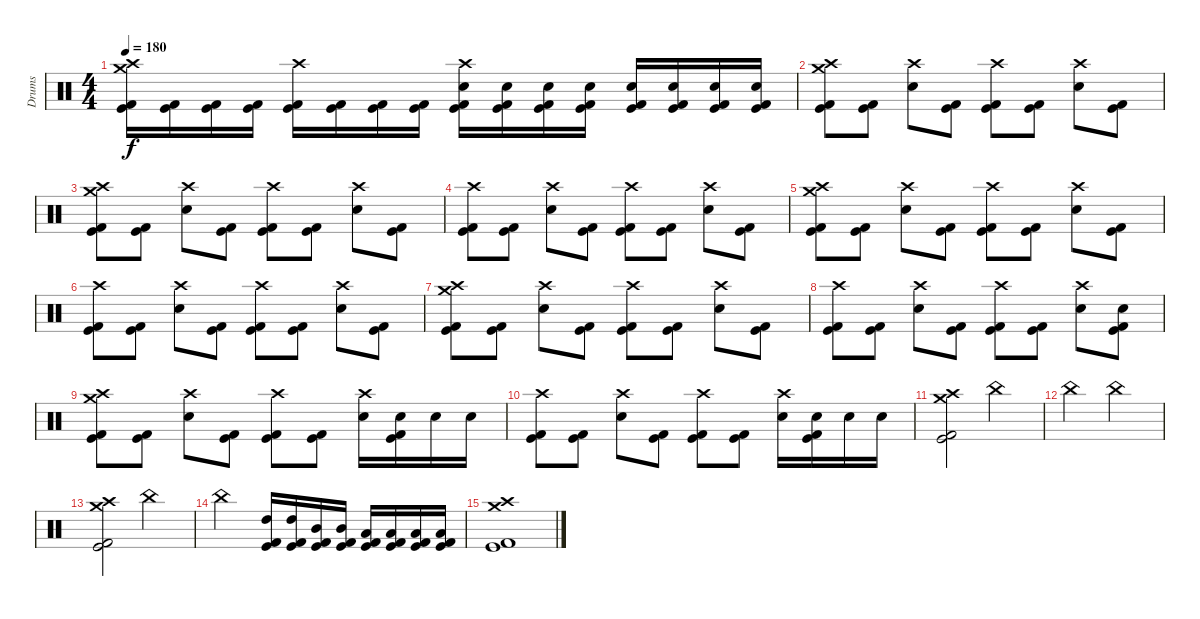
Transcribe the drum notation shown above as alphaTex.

\track ("Drums" "Drums") {instrument percussion}
\staff {score}
\articulation defaults
\ts (4 4)
\tempo 180
\clef neutral
\ks c
("Crash medium (hit)" "Crash high (hit)" "Kick (hit)" "Kick (hit) 2").16{dy f} ("Kick (hit)" "Kick (hit) 2").16 ("Kick (hit)" "Kick (hit) 2").16 ("Kick (hit)" "Kick (hit) 2").16 ("Crash high (hit)" "Kick (hit)" "Kick (hit) 2").16 ("Kick (hit)" "Kick (hit) 2").16 ("Kick (hit)" "Kick (hit) 2").16 ("Kick (hit)" "Kick (hit) 2").16 ("Crash high (hit)" "Snare (hit) 2" "Kick (hit)" "Kick (hit) 2").16 ("Snare (hit) 2" "Kick (hit)" "Kick (hit) 2").16 ("Snare (hit) 2" "Kick (hit)" "Kick (hit) 2").16 ("Snare (hit) 2" "Kick (hit)" "Kick (hit) 2").16 ("Snare (hit) 2" "Kick (hit)" "Kick (hit) 2").16 ("Snare (hit) 2" "Kick (hit)" "Kick (hit) 2").16 ("Snare (hit) 2" "Kick (hit)" "Kick (hit) 2").16 ("Snare (hit) 2" "Kick (hit)" "Kick (hit) 2").16 |
("Crash medium (hit)" "Crash high (hit)" "Kick (hit)" "Kick (hit) 2").8 ("Kick (hit)" "Kick (hit) 2").8 ("Crash high (hit)" "Snare (hit) 2").8 ("Kick (hit)" "Kick (hit) 2").8 ("Crash high (hit)" "Kick (hit)" "Kick (hit) 2").8 ("Kick (hit)" "Kick (hit) 2").8 ("Crash high (hit)" "Snare (hit) 2").8 ("Kick (hit)" "Kick (hit) 2").8 |
("Crash medium (hit)" "Crash high (hit)" "Kick (hit)" "Kick (hit) 2").8 ("Kick (hit)" "Kick (hit) 2").8 ("Crash high (hit)" "Snare (hit) 2").8 ("Kick (hit)" "Kick (hit) 2").8 ("Crash high (hit)" "Kick (hit)" "Kick (hit) 2").8 ("Kick (hit)" "Kick (hit) 2").8 ("Crash high (hit)" "Snare (hit) 2").8 ("Kick (hit)" "Kick (hit) 2").8 |
("Crash high (hit)" "Kick (hit)" "Kick (hit) 2").8 ("Kick (hit)" "Kick (hit) 2").8 ("Crash high (hit)" "Snare (hit) 2").8 ("Kick (hit)" "Kick (hit) 2").8 ("Crash high (hit)" "Kick (hit)" "Kick (hit) 2").8 ("Kick (hit)" "Kick (hit) 2").8 ("Crash high (hit)" "Snare (hit) 2").8 ("Kick (hit)" "Kick (hit) 2").8 |
("Crash medium (hit)" "Crash high (hit)" "Kick (hit)" "Kick (hit) 2").8 ("Kick (hit)" "Kick (hit) 2").8 ("Crash high (hit)" "Snare (hit) 2").8 ("Kick (hit)" "Kick (hit) 2").8 ("Crash high (hit)" "Kick (hit)" "Kick (hit) 2").8 ("Kick (hit)" "Kick (hit) 2").8 ("Crash high (hit)" "Snare (hit) 2").8 ("Kick (hit)" "Kick (hit) 2").8 |
("Crash high (hit)" "Kick (hit)" "Kick (hit) 2").8 ("Kick (hit)" "Kick (hit) 2").8 ("Crash high (hit)" "Snare (hit) 2").8 ("Kick (hit)" "Kick (hit) 2").8 ("Crash high (hit)" "Kick (hit)" "Kick (hit) 2").8 ("Kick (hit)" "Kick (hit) 2").8 ("Crash high (hit)" "Snare (hit) 2").8 ("Kick (hit)" "Kick (hit) 2").8 |
("Crash medium (hit)" "Crash high (hit)" "Kick (hit)" "Kick (hit) 2").8 ("Kick (hit)" "Kick (hit) 2").8 ("Crash high (hit)" "Snare (hit) 2").8 ("Kick (hit)" "Kick (hit) 2").8 ("Crash high (hit)" "Kick (hit)" "Kick (hit) 2").8 ("Kick (hit)" "Kick (hit) 2").8 ("Crash high (hit)" "Snare (hit) 2").8 ("Kick (hit)" "Kick (hit) 2").8 |
("Crash high (hit)" "Kick (hit)" "Kick (hit) 2").8 ("Kick (hit)" "Kick (hit) 2").8 ("Crash high (hit)" "Snare (hit) 2").8 ("Kick (hit)" "Kick (hit) 2").8 ("Crash high (hit)" "Kick (hit)" "Kick (hit) 2").8 ("Kick (hit)" "Kick (hit) 2").8 ("Crash high (hit)" "Snare (hit) 2").8 ("Snare (hit) 2" "Kick (hit)" "Kick (hit) 2").8 |
("Crash medium (hit)" "Crash high (hit)" "Kick (hit)" "Kick (hit) 2").8 ("Kick (hit)" "Kick (hit) 2").8 ("Crash high (hit)" "Snare (hit) 2").8 ("Kick (hit)" "Kick (hit) 2").8 ("Crash high (hit)" "Kick (hit)" "Kick (hit) 2").8 ("Kick (hit)" "Kick (hit) 2").8 ("Crash high (hit)" "Snare (hit) 2").16 ("Snare (hit) 2" "Kick (hit)" "Kick (hit) 2").16 "Snare (hit) 2".16 "Snare (hit) 2".16 |
("Crash high (hit)" "Kick (hit)" "Kick (hit) 2").8 ("Kick (hit)" "Kick (hit) 2").8 ("Crash high (hit)" "Snare (hit) 2").8 ("Kick (hit)" "Kick (hit) 2").8 ("Crash high (hit)" "Kick (hit)" "Kick (hit) 2").8 ("Kick (hit)" "Kick (hit) 2").8 ("Crash high (hit)" "Snare (hit) 2").16 ("Snare (hit) 2" "Kick (hit)" "Kick (hit) 2").16 "Snare (hit) 2".16 "Snare (hit) 2".16 |
("Crash medium (hit)" "Crash high (hit)" "Kick (hit)" "Kick (hit) 2").2 "China (hit)".2 |
"China (hit)".2 "China (hit)".2 |
("Crash medium (hit)" "Crash high (hit)" "Kick (hit)" "Kick (hit) 2").2 "China (hit)".2 |
"China (hit)".2 ("High Tom (hit)" "Kick (hit)" "Kick (hit) 2").16 ("High Tom (hit)" "Kick (hit)" "Kick (hit) 2").16 ("Mid Tom (hit)" "Kick (hit)" "Kick (hit) 2").16 ("Mid Tom (hit)" "Kick (hit)" "Kick (hit) 2").16 ("Low Tom (hit)" "Kick (hit)" "Kick (hit) 2").16 ("Low Tom (hit)" "Kick (hit)" "Kick (hit) 2").16 ("Low Floor Tom (hit)" "Kick (hit)" "Kick (hit) 2").16 ("Low Floor Tom (hit)" "Kick (hit)" "Kick (hit) 2").16 |
("Crash medium (hit)" "Crash high (hit)" "Kick (hit)" "Kick (hit) 2").1
